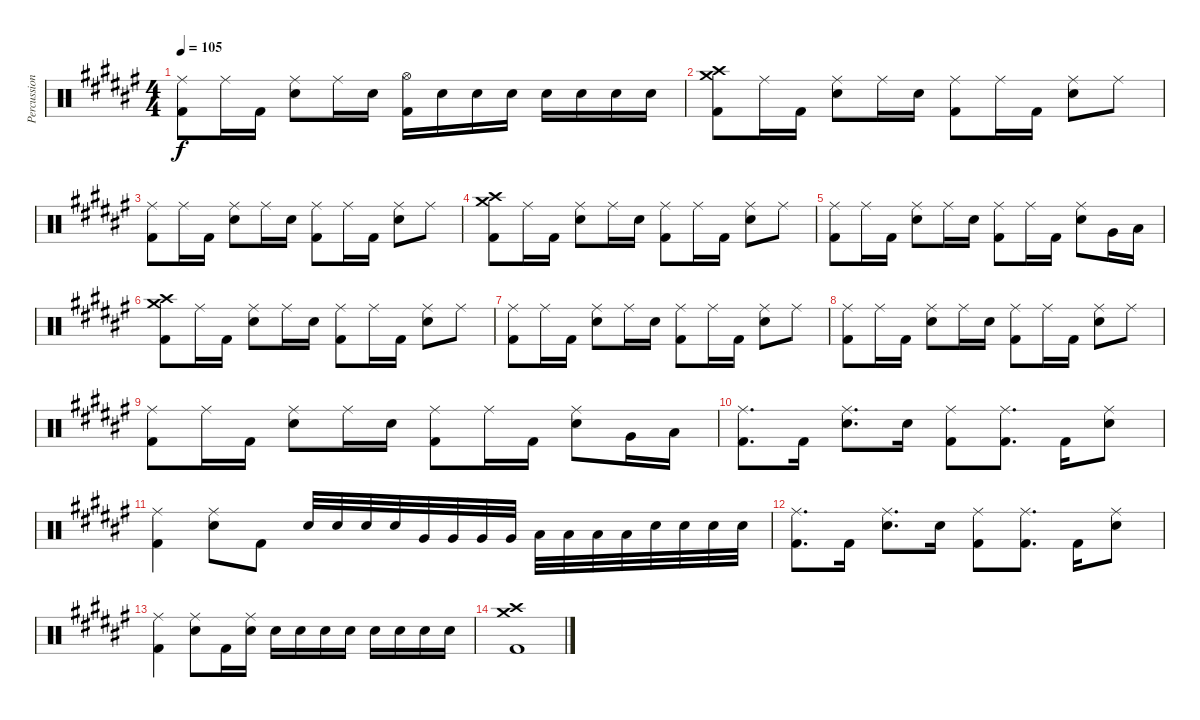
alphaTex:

\track ("Percussion" "Percussion") {instrument percussion}
\staff {score}
\articulation defaults
\ts (4 4)
\tempo 105
\clef neutral
\ks d#minor
("Kick (hit) 2" "Ride (middle)").8{dy f} "Ride (middle)".16 "Kick (hit) 2".16 ("Electric Snare (hit)" "Ride (middle)").8 "Ride (middle)".16 "Electric Snare (hit)".16 ("Kick (hit) 2" "Hi-Hat (open)").16 "Electric Snare (hit)".16 "Electric Snare (hit)".16 "Electric Snare (hit)".16 "Electric Snare (hit)".16 "Electric Snare (hit)".16 "Electric Snare (hit)".16 "Electric Snare (hit)".16 |
("Kick (hit) 2" "Crash medium (hit)" "Crash high (hit)").8 "Ride (middle)".16 "Kick (hit) 2".16 ("Electric Snare (hit)" "Ride (middle)").8 "Ride (middle)".16 "Electric Snare (hit)".16 ("Kick (hit) 2" "Ride (middle)").8 "Ride (middle)".16 "Kick (hit) 2".16 ("Electric Snare (hit)" "Ride (middle)").8 "Ride (middle)".8 |
("Kick (hit) 2" "Ride (middle)").8 "Ride (middle)".16 "Kick (hit) 2".16 ("Electric Snare (hit)" "Ride (middle)").8 "Ride (middle)".16 "Electric Snare (hit)".16 ("Kick (hit) 2" "Ride (middle)").8 "Ride (middle)".16 "Kick (hit) 2".16 ("Electric Snare (hit)" "Ride (middle)").8 "Ride (middle)".8 |
("Kick (hit) 2" "Crash medium (hit)" "Crash high (hit)").8 "Ride (middle)".16 "Kick (hit) 2".16 ("Electric Snare (hit)" "Ride (middle)").8 "Ride (middle)".16 "Electric Snare (hit)".16 ("Kick (hit) 2" "Ride (middle)").8 "Ride (middle)".16 "Kick (hit) 2".16 ("Electric Snare (hit)" "Ride (middle)").8 "Ride (middle)".8 |
("Kick (hit) 2" "Ride (middle)").8 "Ride (middle)".16 "Kick (hit) 2".16 ("Electric Snare (hit)" "Ride (middle)").8 "Ride (middle)".16 "Electric Snare (hit)".16 ("Kick (hit) 2" "Ride (middle)").8 "Ride (middle)".16 "Kick (hit) 2".16 ("Electric Snare (hit)" "Ride (middle)").8 "Very Low Tom (hit)".16 "Low Floor Tom (hit)".16 |
("Kick (hit) 2" "Crash medium (hit)" "Crash high (hit)").8 "Ride (middle)".16 "Kick (hit) 2".16 ("Electric Snare (hit)" "Ride (middle)").8 "Ride (middle)".16 "Electric Snare (hit)".16 ("Kick (hit) 2" "Ride (middle)").8 "Ride (middle)".16 "Kick (hit) 2".16 ("Electric Snare (hit)" "Ride (middle)").8 "Ride (middle)".8 |
("Kick (hit) 2" "Ride (middle)").8 "Ride (middle)".16 "Kick (hit) 2".16 ("Electric Snare (hit)" "Ride (middle)").8 "Ride (middle)".16 "Electric Snare (hit)".16 ("Kick (hit) 2" "Ride (middle)").8 "Ride (middle)".16 "Kick (hit) 2".16 ("Electric Snare (hit)" "Ride (middle)").8 "Ride (middle)".8 |
("Kick (hit) 2" "Ride (middle)").8 "Ride (middle)".16 "Kick (hit) 2".16 ("Electric Snare (hit)" "Ride (middle)").8 "Ride (middle)".16 "Electric Snare (hit)".16 ("Kick (hit) 2" "Ride (middle)").8 "Ride (middle)".16 "Kick (hit) 2".16 ("Electric Snare (hit)" "Ride (middle)").8 "Ride (middle)".8 |
("Kick (hit) 2" "Ride (middle)").8 "Ride (middle)".16 "Kick (hit) 2".16 ("Electric Snare (hit)" "Ride (middle)").8 "Ride (middle)".16 "Electric Snare (hit)".16 ("Kick (hit) 2" "Ride (middle)").8 "Ride (middle)".16 "Kick (hit) 2".16 ("Electric Snare (hit)" "Ride (middle)").8 "Very Low Tom (hit)".16 "Low Floor Tom (hit)".16 |
("Kick (hit) 2" "Ride (middle)").8{d} "Kick (hit) 2".16 ("Electric Snare (hit)" "Ride (middle)").8{d} "Electric Snare (hit)".16 ("Kick (hit) 2" "Ride (middle)").8 ("Kick (hit) 2" "Ride (middle)").8{d} "Kick (hit) 2".16 ("Electric Snare (hit)" "Ride (middle)").8 |
("Kick (hit) 2" "Ride (middle)").4 ("Electric Snare (hit)" "Ride (middle)").8 "Kick (hit) 2".8 "Electric Snare (hit)".32 "Electric Snare (hit)".32 "Electric Snare (hit)".32 "Electric Snare (hit)".32 "Very Low Tom (hit)".32 "Very Low Tom (hit)".32 "Very Low Tom (hit)".32 "Very Low Tom (hit)".32 "Low Floor Tom (hit)".32 "Low Floor Tom (hit)".32 "Low Floor Tom (hit)".32 "Low Floor Tom (hit)".32 "Electric Snare (hit)".32 "Electric Snare (hit)".32 "Electric Snare (hit)".32 "Electric Snare (hit)".32 |
("Kick (hit) 2" "Ride (middle)").8{d} "Kick (hit) 2".16 ("Electric Snare (hit)" "Ride (middle)").8{d} "Electric Snare (hit)".16 ("Kick (hit) 2" "Ride (middle)").8 ("Kick (hit) 2" "Ride (middle)").8{d} "Kick (hit) 2".16 ("Electric Snare (hit)" "Ride (middle)").8 |
("Kick (hit) 2" "Ride (middle)").4 ("Electric Snare (hit)" "Ride (middle)").8 "Kick (hit) 2".16 ("Electric Snare (hit)" "Ride (middle)").16 "Electric Snare (hit)".16 "Electric Snare (hit)".16 "Electric Snare (hit)".16 "Electric Snare (hit)".16 "Electric Snare (hit)".16 "Electric Snare (hit)".16 "Electric Snare (hit)".16 "Electric Snare (hit)".16 |
("Crash high (hit)" "Crash medium (hit)" "Kick (hit) 2").1
